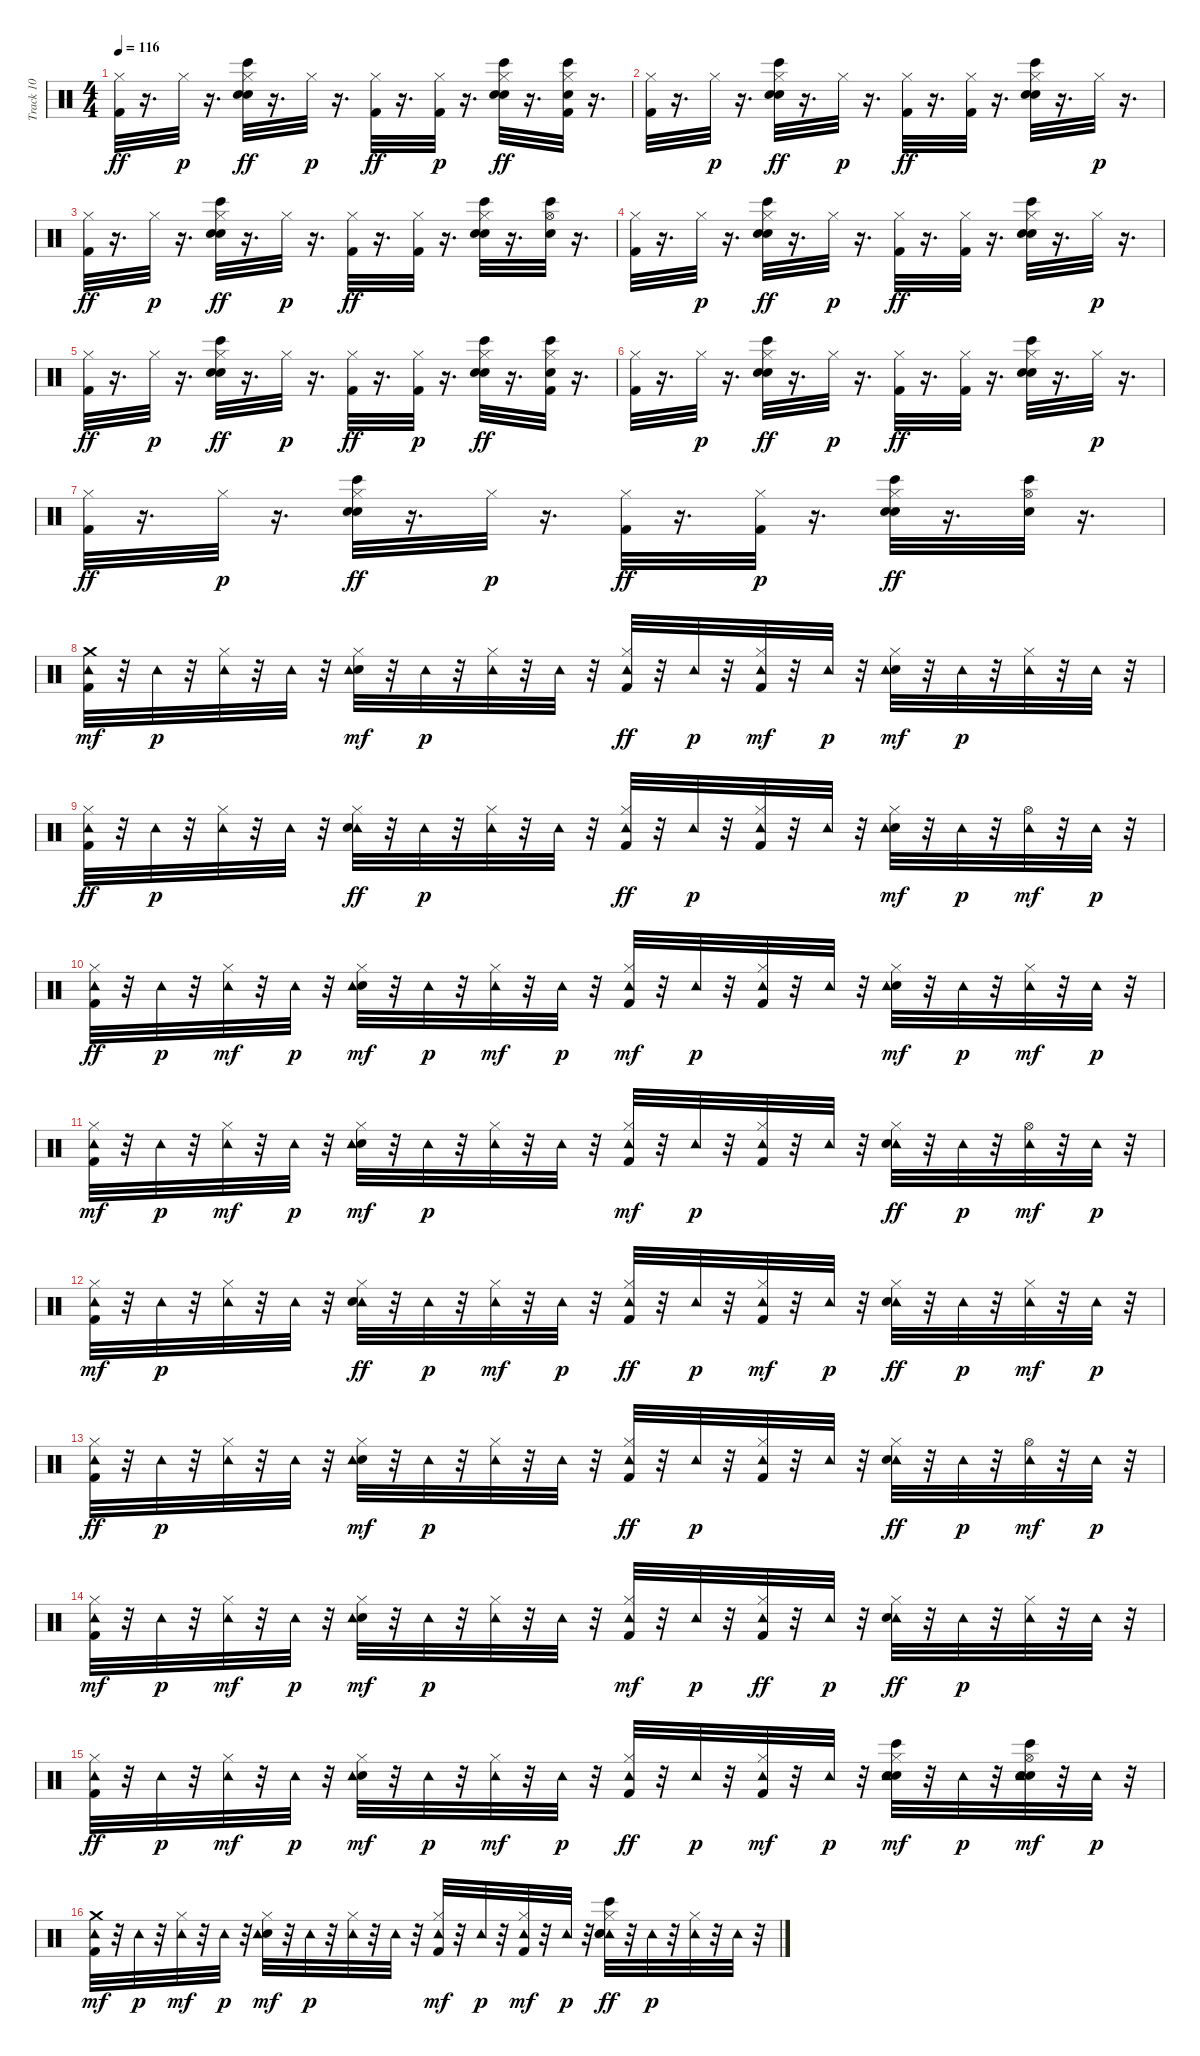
\track ("Track 10" "Track 10") {instrument percussion}
\staff {score}
\articulation defaults
\ts (4 4)
\tempo 116
\clef neutral
\ks c
("Kick (hit) 2" "Hi-Hat (closed)").32{dy ff} r.16{d} "Hi-Hat (closed)".32{dy p} r.16{d} ("Bongo High (hit)" "Snare (hit) 2" "Hand Clap (hit)" "Hi-Hat (closed)").32{dy ff} r.16{d} "Hi-Hat (closed)".32{dy p} r.16{d} ("Kick (hit) 2" "Hi-Hat (closed)").32{dy ff} r.16{d} ("Kick (hit) 2" "Hi-Hat (closed)").32{dy p} r.16{d} ("Snare (hit) 2" "Hand Clap (hit)" "Bongo High (hit)" "Hi-Hat (closed)").32{dy ff} r.16{d} ("Hand Clap (hit)" "Hi-Hat (closed)" "Kick (hit) 2" "Bongo High (hit)").32 r.16{d} |
("Hi-Hat (closed)" "Kick (hit) 2").32 r.16{d} "Hi-Hat (closed)".32{dy p} r.16{d} ("Bongo High (hit)" "Snare (hit) 2" "Hand Clap (hit)" "Hi-Hat (closed)").32{dy ff} r.16{d} "Hi-Hat (closed)".32{dy p} r.16{d} ("Hi-Hat (closed)" "Kick (hit) 2").32{dy ff} r.16{d} ("Hi-Hat (closed)" "Kick (hit) 2").32 r.16{d} ("Hand Clap (hit)" "Snare (hit) 2" "Hi-Hat (closed)" "Bongo High (hit)").32 r.16{d} "Hi-Hat (closed)".32{dy p} r.16{d} |
("Kick (hit) 2" "Hi-Hat (closed)").32{dy ff} r.16{d} "Hi-Hat (closed)".32{dy p} r.16{d} ("Hi-Hat (closed)" "Snare (hit) 2" "Hand Clap (hit)" "Bongo High (hit)").32{dy ff} r.16{d} "Hi-Hat (closed)".32{dy p} r.16{d} ("Hi-Hat (closed)" "Kick (hit) 2").32{dy ff} r.16{d} ("Hi-Hat (closed)" "Kick (hit) 2").32 r.16{d} ("Bongo High (hit)" "Hi-Hat (closed)" "Snare (hit) 2" "Hand Clap (hit)").32 r.16{d} ("Hand Clap (hit)" "Hi-Hat (open)" "Bongo High (hit)").32 r.16{d} |
("Hi-Hat (closed)" "Kick (hit) 2").32 r.16{d} "Hi-Hat (closed)".32{dy p} r.16{d} ("Snare (hit) 2" "Hand Clap (hit)" "Bongo High (hit)" "Hi-Hat (closed)").32{dy ff} r.16{d} "Hi-Hat (closed)".32{dy p} r.16{d} ("Kick (hit) 2" "Hi-Hat (closed)").32{dy ff} r.16{d} ("Hi-Hat (closed)" "Kick (hit) 2").32 r.16{d} ("Hand Clap (hit)" "Snare (hit) 2" "Bongo High (hit)" "Hi-Hat (closed)").32 r.16{d} "Hi-Hat (closed)".32{dy p} r.16{d} |
("Kick (hit) 2" "Hi-Hat (closed)").32{dy ff} r.16{d} "Hi-Hat (closed)".32{dy p} r.16{d} ("Bongo High (hit)" "Snare (hit) 2" "Hand Clap (hit)" "Hi-Hat (closed)").32{dy ff} r.16{d} "Hi-Hat (closed)".32{dy p} r.16{d} ("Hi-Hat (closed)" "Kick (hit) 2").32{dy ff} r.16{d} ("Kick (hit) 2" "Hi-Hat (closed)").32{dy p} r.16{d} ("Hand Clap (hit)" "Snare (hit) 2" "Bongo High (hit)" "Hi-Hat (closed)").32{dy ff} r.16{d} ("Kick (hit) 2" "Hi-Hat (closed)" "Bongo High (hit)" "Hand Clap (hit)").32 r.16{d} |
("Hi-Hat (closed)" "Kick (hit) 2").32 r.16{d} "Hi-Hat (closed)".32{dy p} r.16{d} ("Bongo High (hit)" "Snare (hit) 2" "Hand Clap (hit)" "Hi-Hat (closed)").32{dy ff} r.16{d} "Hi-Hat (closed)".32{dy p} r.16{d} ("Hi-Hat (closed)" "Kick (hit) 2").32{dy ff} r.16{d} ("Hi-Hat (closed)" "Kick (hit) 2").32 r.16{d} ("Bongo High (hit)" "Snare (hit) 2" "Hand Clap (hit)" "Hi-Hat (closed)").32 r.16{d} "Hi-Hat (closed)".32{dy p} r.16{d} |
("Kick (hit) 2" "Hi-Hat (closed)").32{dy ff} r.16{d} "Hi-Hat (closed)".32{dy p} r.16{d} ("Bongo High (hit)" "Snare (hit) 2" "Hi-Hat (closed)" "Hand Clap (hit)").32{dy ff} r.16{d} "Hi-Hat (closed)".32{dy p} r.16{d} ("Hi-Hat (closed)" "Kick (hit) 2").32{dy ff} r.16{d} ("Kick (hit) 2" "Hi-Hat (closed)").32{dy p} r.16{d} ("Hand Clap (hit)" "Snare (hit) 2" "Bongo High (hit)" "Hi-Hat (closed)").32{dy ff} r.16{d} ("Bongo High (hit)" "Hi-Hat (open)" "Hand Clap (hit)").32 r.16{d} |
("Crash medium (hit)" "Kick (hit) 2" "Tambourine (hit)").32{dy mf} r.32 "Tambourine (hit)".32{dy p} r.32 ("Tambourine (hit)" "Hi-Hat (closed)").32 r.32 "Tambourine (hit)".32 r.32 ("Hi-Hat (closed)" "Snare (hit) 2" "Tambourine (hit)").32{dy mf} r.32 "Tambourine (hit)".32{dy p} r.32 ("Tambourine (hit)" "Hi-Hat (closed)").32 r.32 "Tambourine (hit)".32 r.32 ("Tambourine (hit)" "Kick (hit) 2" "Hi-Hat (closed)").32{dy ff} r.32 "Tambourine (hit)".32{dy p} r.32 ("Kick (hit) 2" "Hi-Hat (closed)" "Tambourine (hit)").32{dy mf} r.32 "Tambourine (hit)".32{dy p} r.32 ("Snare (hit) 2" "Tambourine (hit)" "Hi-Hat (closed)").32{dy mf} r.32 "Tambourine (hit)".32{dy p} r.32 ("Tambourine (hit)" "Hi-Hat (closed)").32 r.32 "Tambourine (hit)".32 r.32 |
("Tambourine (hit)" "Hi-Hat (closed)" "Kick (hit) 2").32{dy ff} r.32 "Tambourine (hit)".32{dy p} r.32 ("Tambourine (hit)" "Hi-Hat (closed)").32 r.32 "Tambourine (hit)".32 r.32 ("Tambourine (hit)" "Hi-Hat (closed)" "Snare (hit) 2").32{dy ff} r.32 "Tambourine (hit)".32{dy p} r.32 ("Tambourine (hit)" "Hi-Hat (closed)").32 r.32 "Tambourine (hit)".32 r.32 ("Hi-Hat (closed)" "Tambourine (hit)" "Kick (hit) 2").32{dy ff} r.32 "Tambourine (hit)".32{dy p} r.32 ("Tambourine (hit)" "Kick (hit) 2" "Hi-Hat (closed)").32 r.32 "Tambourine (hit)".32 r.32 ("Hi-Hat (closed)" "Snare (hit) 2" "Tambourine (hit)").32{dy mf} r.32 "Tambourine (hit)".32{dy p} r.32 ("Hi-Hat (open)" "Tambourine (hit)").32{dy mf} r.32 "Tambourine (hit)".32{dy p} r.32 |
("Tambourine (hit)" "Kick (hit) 2" "Hi-Hat (closed)").32{dy ff} r.32 "Tambourine (hit)".32{dy p} r.32 ("Hi-Hat (closed)" "Tambourine (hit)").32{dy mf} r.32 "Tambourine (hit)".32{dy p} r.32 ("Snare (hit) 2" "Hi-Hat (closed)" "Tambourine (hit)").32{dy mf} r.32 "Tambourine (hit)".32{dy p} r.32 ("Hi-Hat (closed)" "Tambourine (hit)").32{dy mf} r.32 "Tambourine (hit)".32{dy p} r.32 ("Kick (hit) 2" "Tambourine (hit)" "Hi-Hat (closed)").32{dy mf} r.32 "Tambourine (hit)".32{dy p} r.32 ("Tambourine (hit)" "Kick (hit) 2" "Hi-Hat (closed)").32 r.32 "Tambourine (hit)".32 r.32 ("Snare (hit) 2" "Tambourine (hit)" "Hi-Hat (closed)").32{dy mf} r.32 "Tambourine (hit)".32{dy p} r.32 ("Hi-Hat (closed)" "Tambourine (hit)").32{dy mf} r.32 "Tambourine (hit)".32{dy p} r.32 |
("Hi-Hat (closed)" "Kick (hit) 2" "Tambourine (hit)").32{dy mf} r.32 "Tambourine (hit)".32{dy p} r.32 ("Hi-Hat (closed)" "Tambourine (hit)").32{dy mf} r.32 "Tambourine (hit)".32{dy p} r.32 ("Hi-Hat (closed)" "Snare (hit) 2" "Tambourine (hit)").32{dy mf} r.32 "Tambourine (hit)".32{dy p} r.32 ("Tambourine (hit)" "Hi-Hat (closed)").32 r.32 "Tambourine (hit)".32 r.32 ("Kick (hit) 2" "Tambourine (hit)" "Hi-Hat (closed)").32{dy mf} r.32 "Tambourine (hit)".32{dy p} r.32 ("Tambourine (hit)" "Kick (hit) 2" "Hi-Hat (closed)").32 r.32 "Tambourine (hit)".32 r.32 ("Hi-Hat (closed)" "Tambourine (hit)" "Snare (hit) 2").32{dy ff} r.32 "Tambourine (hit)".32{dy p} r.32 ("Hi-Hat (open)" "Tambourine (hit)").32{dy mf} r.32 "Tambourine (hit)".32{dy p} r.32 |
("Kick (hit) 2" "Hi-Hat (closed)" "Tambourine (hit)").32{dy mf} r.32 "Tambourine (hit)".32{dy p} r.32 ("Tambourine (hit)" "Hi-Hat (closed)").32 r.32 "Tambourine (hit)".32 r.32 ("Tambourine (hit)" "Snare (hit) 2" "Hi-Hat (closed)").32{dy ff} r.32 "Tambourine (hit)".32{dy p} r.32 ("Hi-Hat (closed)" "Tambourine (hit)").32{dy mf} r.32 "Tambourine (hit)".32{dy p} r.32 ("Hi-Hat (closed)" "Tambourine (hit)" "Kick (hit) 2").32{dy ff} r.32 "Tambourine (hit)".32{dy p} r.32 ("Hi-Hat (closed)" "Kick (hit) 2" "Tambourine (hit)").32{dy mf} r.32 "Tambourine (hit)".32{dy p} r.32 ("Tambourine (hit)" "Snare (hit) 2" "Hi-Hat (closed)").32{dy ff} r.32 "Tambourine (hit)".32{dy p} r.32 ("Hi-Hat (closed)" "Tambourine (hit)").32{dy mf} r.32 "Tambourine (hit)".32{dy p} r.32 |
("Tambourine (hit)" "Kick (hit) 2" "Hi-Hat (closed)").32{dy ff} r.32 "Tambourine (hit)".32{dy p} r.32 ("Tambourine (hit)" "Hi-Hat (closed)").32 r.32 "Tambourine (hit)".32 r.32 ("Snare (hit) 2" "Tambourine (hit)" "Hi-Hat (closed)").32{dy mf} r.32 "Tambourine (hit)".32{dy p} r.32 ("Tambourine (hit)" "Hi-Hat (closed)").32 r.32 "Tambourine (hit)".32 r.32 ("Tambourine (hit)" "Kick (hit) 2" "Hi-Hat (closed)").32{dy ff} r.32 "Tambourine (hit)".32{dy p} r.32 ("Tambourine (hit)" "Kick (hit) 2" "Hi-Hat (closed)").32 r.32 "Tambourine (hit)".32 r.32 ("Tambourine (hit)" "Snare (hit) 2" "Hi-Hat (closed)").32{dy ff} r.32 "Tambourine (hit)".32{dy p} r.32 ("Hi-Hat (open)" "Tambourine (hit)").32{dy mf} r.32 "Tambourine (hit)".32{dy p} r.32 |
("Hi-Hat (closed)" "Kick (hit) 2" "Tambourine (hit)").32{dy mf} r.32 "Tambourine (hit)".32{dy p} r.32 ("Hi-Hat (closed)" "Tambourine (hit)").32{dy mf} r.32 "Tambourine (hit)".32{dy p} r.32 ("Hi-Hat (closed)" "Snare (hit) 2" "Tambourine (hit)").32{dy mf} r.32 "Tambourine (hit)".32{dy p} r.32 ("Tambourine (hit)" "Hi-Hat (closed)").32 r.32 "Tambourine (hit)".32 r.32 ("Kick (hit) 2" "Hi-Hat (closed)" "Tambourine (hit)").32{dy mf} r.32 "Tambourine (hit)".32{dy p} r.32 ("Hi-Hat (closed)" "Tambourine (hit)" "Kick (hit) 2").32{dy ff} r.32 "Tambourine (hit)".32{dy p} r.32 ("Tambourine (hit)" "Hi-Hat (closed)" "Snare (hit) 2").32{dy ff} r.32 "Tambourine (hit)".32{dy p} r.32 ("Tambourine (hit)" "Hi-Hat (closed)").32 r.32 "Tambourine (hit)".32 r.32 |
("Tambourine (hit)" "Kick (hit) 2" "Hi-Hat (closed)").32{dy ff} r.32 "Tambourine (hit)".32{dy p} r.32 ("Hi-Hat (closed)" "Tambourine (hit)").32{dy mf} r.32 "Tambourine (hit)".32{dy p} r.32 ("Snare (hit) 2" "Tambourine (hit)" "Hi-Hat (closed)").32{dy mf} r.32 "Tambourine (hit)".32{dy p} r.32 ("Hi-Hat (closed)" "Tambourine (hit)").32{dy mf} r.32 "Tambourine (hit)".32{dy p} r.32 ("Tambourine (hit)" "Kick (hit) 2" "Hi-Hat (closed)").32{dy ff} r.32 "Tambourine (hit)".32{dy p} r.32 ("Kick (hit) 2" "Hi-Hat (closed)" "Tambourine (hit)").32{dy mf} r.32 "Tambourine (hit)".32{dy p} r.32 ("Bongo High (hit)" "Hand Clap (hit)" "Snare (hit) 2" "Tambourine (hit)" "Hi-Hat (closed)").32{dy mf} r.32 "Tambourine (hit)".32{dy p} r.32 ("Hand Clap (hit)" "Hi-Hat (open)" "Snare (hit) 2" "Bongo High (hit)" "Tambourine (hit)").32{dy mf} r.32 "Tambourine (hit)".32{dy p} r.32 |
("Crash medium (hit)" "Kick (hit) 2" "Tambourine (hit)").32{dy mf} r.32 "Tambourine (hit)".32{dy p} r.32 ("Hi-Hat (closed)" "Tambourine (hit)").32{dy mf} r.32 "Tambourine (hit)".32{dy p} r.32 ("Hi-Hat (closed)" "Snare (hit) 2" "Tambourine (hit)").32{dy mf} r.32 "Tambourine (hit)".32{dy p} r.32 ("Tambourine (hit)" "Hi-Hat (closed)").32 r.32 "Tambourine (hit)".32 r.32 ("Hi-Hat (closed)" "Kick (hit) 2" "Tambourine (hit)").32{dy mf} r.32 "Tambourine (hit)".32{dy p} r.32 ("Kick (hit) 2" "Hi-Hat (closed)" "Tambourine (hit)").32{dy mf} r.32 "Tambourine (hit)".32{dy p} r.32 ("Tambourine (hit)" "Hi-Hat (closed)" "Snare (hit) 2" "Hand Clap (hit)" "Bongo High (hit)").32{dy ff} r.32 "Tambourine (hit)".32{dy p} r.32 ("Tambourine (hit)" "Hi-Hat (closed)").32 r.32 "Tambourine (hit)".32 r.32
